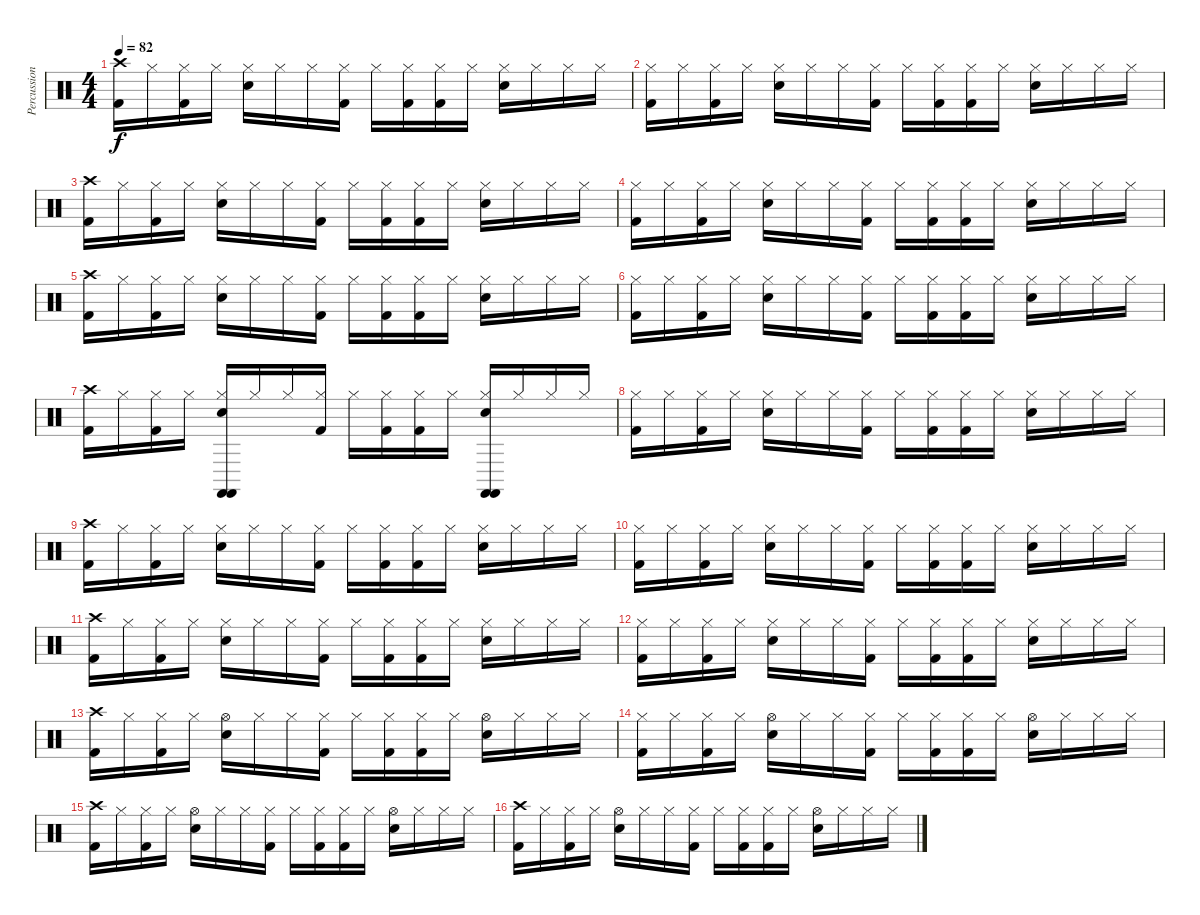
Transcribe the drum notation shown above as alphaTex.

\track ("Percussion" "Percussion") {instrument percussion}
\staff {score}
\articulation defaults
\ts (4 4)
\tempo 82
\clef neutral
\ks c
("Crash high (hit)" "Kick (hit) 2").16{dy f} "Hi-Hat (closed)".16 ("Hi-Hat (closed)" "Kick (hit) 2").16 "Hi-Hat (closed)".16 ("Hi-Hat (closed)" "Snare (hit) 2").16 "Hi-Hat (closed)".16 "Hi-Hat (closed)".16 ("Hi-Hat (closed)" "Kick (hit) 2").16 "Hi-Hat (closed)".16 ("Hi-Hat (closed)" "Kick (hit) 2").16 ("Hi-Hat (closed)" "Kick (hit) 2").16 "Hi-Hat (closed)".16 ("Hi-Hat (closed)" "Snare (hit) 2").16 "Hi-Hat (closed)".16 "Hi-Hat (closed)".16 "Hi-Hat (closed)".16 |
("Hi-Hat (closed)" "Kick (hit) 2").16 "Hi-Hat (closed)".16 ("Hi-Hat (closed)" "Kick (hit) 2").16 "Hi-Hat (closed)".16 ("Hi-Hat (closed)" "Snare (hit) 2").16 "Hi-Hat (closed)".16 "Hi-Hat (closed)".16 ("Hi-Hat (closed)" "Kick (hit) 2").16 "Hi-Hat (closed)".16 ("Hi-Hat (closed)" "Kick (hit) 2").16 ("Hi-Hat (closed)" "Kick (hit) 2").16 "Hi-Hat (closed)".16 ("Hi-Hat (closed)" "Snare (hit) 2").16 "Hi-Hat (closed)".16 "Hi-Hat (closed)".16 "Hi-Hat (closed)".16 |
("Crash high (hit)" "Kick (hit) 2").16 "Hi-Hat (closed)".16 ("Hi-Hat (closed)" "Kick (hit) 2").16 "Hi-Hat (closed)".16 ("Hi-Hat (closed)" "Snare (hit) 2").16 "Hi-Hat (closed)".16 "Hi-Hat (closed)".16 ("Hi-Hat (closed)" "Kick (hit) 2").16 "Hi-Hat (closed)".16 ("Hi-Hat (closed)" "Kick (hit) 2").16 ("Hi-Hat (closed)" "Kick (hit) 2").16 "Hi-Hat (closed)".16 ("Hi-Hat (closed)" "Snare (hit) 2").16 "Hi-Hat (closed)".16 "Hi-Hat (closed)".16 "Hi-Hat (closed)".16 |
("Hi-Hat (closed)" "Kick (hit) 2").16 "Hi-Hat (closed)".16 ("Hi-Hat (closed)" "Kick (hit) 2").16 "Hi-Hat (closed)".16 ("Hi-Hat (closed)" "Snare (hit) 2").16 "Hi-Hat (closed)".16 "Hi-Hat (closed)".16 ("Hi-Hat (closed)" "Kick (hit) 2").16 "Hi-Hat (closed)".16 ("Hi-Hat (closed)" "Kick (hit) 2").16 ("Hi-Hat (closed)" "Kick (hit) 2").16 "Hi-Hat (closed)".16 ("Hi-Hat (closed)" "Snare (hit) 2").16 "Hi-Hat (closed)".16 "Hi-Hat (closed)".16 "Hi-Hat (closed)".16 |
("Crash high (hit)" "Kick (hit) 2").16 "Hi-Hat (closed)".16 ("Hi-Hat (closed)" "Kick (hit) 2").16 "Hi-Hat (closed)".16 ("Hi-Hat (closed)" "Snare (hit) 2").16 "Hi-Hat (closed)".16 "Hi-Hat (closed)".16 ("Hi-Hat (closed)" "Kick (hit) 2").16 "Hi-Hat (closed)".16 ("Hi-Hat (closed)" "Kick (hit) 2").16 ("Hi-Hat (closed)" "Kick (hit) 2").16 "Hi-Hat (closed)".16 ("Hi-Hat (closed)" "Snare (hit) 2").16 "Hi-Hat (closed)".16 "Hi-Hat (closed)".16 "Hi-Hat (closed)".16 |
("Hi-Hat (closed)" "Kick (hit) 2").16 "Hi-Hat (closed)".16 ("Hi-Hat (closed)" "Kick (hit) 2").16 "Hi-Hat (closed)".16 ("Hi-Hat (closed)" "Snare (hit) 2").16 "Hi-Hat (closed)".16 "Hi-Hat (closed)".16 ("Hi-Hat (closed)" "Kick (hit) 2").16 "Hi-Hat (closed)".16 ("Hi-Hat (closed)" "Kick (hit) 2").16 ("Hi-Hat (closed)" "Kick (hit) 2").16 "Hi-Hat (closed)".16 ("Hi-Hat (closed)" "Snare (hit) 2").16 "Hi-Hat (closed)".16 "Hi-Hat (closed)".16 "Hi-Hat (closed)".16 |
("Crash high (hit)" "Kick (hit) 2").16 "Hi-Hat (closed)".16 ("Hi-Hat (closed)" "Kick (hit) 2").16 "Hi-Hat (closed)".16 ("Hi-Hat (closed)" "Snare (hit) 2" "Castanets (hit)" "Castanets (hit)").16 "Hi-Hat (closed)".16 "Hi-Hat (closed)".16 ("Hi-Hat (closed)" "Kick (hit) 2").16 "Hi-Hat (closed)".16 ("Hi-Hat (closed)" "Kick (hit) 2").16 ("Hi-Hat (closed)" "Kick (hit) 2").16 "Hi-Hat (closed)".16 ("Hi-Hat (closed)" "Snare (hit) 2" "Castanets (hit)" "Castanets (hit)").16 "Hi-Hat (closed)".16 "Hi-Hat (closed)".16 "Hi-Hat (closed)".16 |
("Hi-Hat (closed)" "Kick (hit) 2").16 "Hi-Hat (closed)".16 ("Hi-Hat (closed)" "Kick (hit) 2").16 "Hi-Hat (closed)".16 ("Hi-Hat (closed)" "Snare (hit) 2").16 "Hi-Hat (closed)".16 "Hi-Hat (closed)".16 ("Hi-Hat (closed)" "Kick (hit) 2").16 "Hi-Hat (closed)".16 ("Hi-Hat (closed)" "Kick (hit) 2").16 ("Hi-Hat (closed)" "Kick (hit) 2").16 "Hi-Hat (closed)".16 ("Hi-Hat (closed)" "Snare (hit) 2").16 "Hi-Hat (closed)".16 "Hi-Hat (closed)".16 "Hi-Hat (closed)".16 |
("Crash high (hit)" "Kick (hit) 2").16 "Hi-Hat (closed)".16 ("Hi-Hat (closed)" "Kick (hit) 2").16 "Hi-Hat (closed)".16 ("Hi-Hat (closed)" "Snare (hit) 2").16 "Hi-Hat (closed)".16 "Hi-Hat (closed)".16 ("Hi-Hat (closed)" "Kick (hit) 2").16 "Hi-Hat (closed)".16 ("Hi-Hat (closed)" "Kick (hit) 2").16 ("Hi-Hat (closed)" "Kick (hit) 2").16 "Hi-Hat (closed)".16 ("Hi-Hat (closed)" "Snare (hit) 2").16 "Hi-Hat (closed)".16 "Hi-Hat (closed)".16 "Hi-Hat (closed)".16 |
("Hi-Hat (closed)" "Kick (hit) 2").16 "Hi-Hat (closed)".16 ("Hi-Hat (closed)" "Kick (hit) 2").16 "Hi-Hat (closed)".16 ("Hi-Hat (closed)" "Snare (hit) 2").16 "Hi-Hat (closed)".16 "Hi-Hat (closed)".16 ("Hi-Hat (closed)" "Kick (hit) 2").16 "Hi-Hat (closed)".16 ("Hi-Hat (closed)" "Kick (hit) 2").16 ("Hi-Hat (closed)" "Kick (hit) 2").16 "Hi-Hat (closed)".16 ("Hi-Hat (closed)" "Snare (hit) 2").16 "Hi-Hat (closed)".16 "Hi-Hat (closed)".16 "Hi-Hat (closed)".16 |
("Crash high (hit)" "Kick (hit) 2").16 "Hi-Hat (closed)".16 ("Hi-Hat (closed)" "Kick (hit) 2").16 "Hi-Hat (closed)".16 ("Hi-Hat (closed)" "Snare (hit) 2").16 "Hi-Hat (closed)".16 "Hi-Hat (closed)".16 ("Hi-Hat (closed)" "Kick (hit) 2").16 "Hi-Hat (closed)".16 ("Hi-Hat (closed)" "Kick (hit) 2").16 ("Hi-Hat (closed)" "Kick (hit) 2").16 "Hi-Hat (closed)".16 ("Hi-Hat (closed)" "Snare (hit) 2").16 "Hi-Hat (closed)".16 "Hi-Hat (closed)".16 "Hi-Hat (closed)".16 |
("Hi-Hat (closed)" "Kick (hit) 2").16 "Hi-Hat (closed)".16 ("Hi-Hat (closed)" "Kick (hit) 2").16 "Hi-Hat (closed)".16 ("Hi-Hat (closed)" "Snare (hit) 2").16 "Hi-Hat (closed)".16 "Hi-Hat (closed)".16 ("Hi-Hat (closed)" "Kick (hit) 2").16 "Hi-Hat (closed)".16 ("Hi-Hat (closed)" "Kick (hit) 2").16 ("Hi-Hat (closed)" "Kick (hit) 2").16 "Hi-Hat (closed)".16 ("Hi-Hat (closed)" "Snare (hit) 2").16 "Hi-Hat (closed)".16 "Hi-Hat (closed)".16 "Hi-Hat (closed)".16 |
("Crash high (hit)" "Kick (hit) 2").16 "Hi-Hat (closed)".16 ("Hi-Hat (closed)" "Kick (hit) 2").16 "Hi-Hat (closed)".16 ("Hi-Hat (open)" "Snare (hit) 2").16 "Hi-Hat (closed)".16 "Hi-Hat (closed)".16 ("Hi-Hat (closed)" "Kick (hit) 2").16 "Hi-Hat (closed)".16 ("Hi-Hat (closed)" "Kick (hit) 2").16 ("Hi-Hat (closed)" "Kick (hit) 2").16 "Hi-Hat (closed)".16 ("Hi-Hat (open)" "Snare (hit) 2").16 "Hi-Hat (closed)".16 "Hi-Hat (closed)".16 "Hi-Hat (closed)".16 |
("Hi-Hat (closed)" "Kick (hit) 2").16 "Hi-Hat (closed)".16 ("Hi-Hat (closed)" "Kick (hit) 2").16 "Hi-Hat (closed)".16 ("Hi-Hat (open)" "Snare (hit) 2").16 "Hi-Hat (closed)".16 "Hi-Hat (closed)".16 ("Hi-Hat (closed)" "Kick (hit) 2").16 "Hi-Hat (closed)".16 ("Hi-Hat (closed)" "Kick (hit) 2").16 ("Hi-Hat (closed)" "Kick (hit) 2").16 "Hi-Hat (closed)".16 ("Hi-Hat (open)" "Snare (hit) 2").16 "Hi-Hat (closed)".16 "Hi-Hat (closed)".16 "Hi-Hat (closed)".16 |
("Crash high (hit)" "Kick (hit) 2").16 "Hi-Hat (closed)".16 ("Hi-Hat (closed)" "Kick (hit) 2").16 "Hi-Hat (closed)".16 ("Hi-Hat (open)" "Snare (hit) 2").16 "Hi-Hat (closed)".16 "Hi-Hat (closed)".16 ("Hi-Hat (closed)" "Kick (hit) 2").16 "Hi-Hat (closed)".16 ("Hi-Hat (closed)" "Kick (hit) 2").16 ("Hi-Hat (closed)" "Kick (hit) 2").16 "Hi-Hat (closed)".16 ("Hi-Hat (open)" "Snare (hit) 2").16 "Hi-Hat (closed)".16 "Hi-Hat (closed)".16 "Hi-Hat (closed)".16 |
("Crash high (hit)" "Kick (hit) 2").16 "Hi-Hat (closed)".16 ("Hi-Hat (closed)" "Kick (hit) 2").16 "Hi-Hat (closed)".16 ("Hi-Hat (open)" "Snare (hit) 2").16 "Hi-Hat (closed)".16 "Hi-Hat (closed)".16 ("Hi-Hat (closed)" "Kick (hit) 2").16 "Hi-Hat (closed)".16 ("Hi-Hat (closed)" "Kick (hit) 2").16 ("Hi-Hat (closed)" "Kick (hit) 2").16 "Hi-Hat (closed)".16 ("Hi-Hat (open)" "Snare (hit) 2").16 "Hi-Hat (closed)".16 "Hi-Hat (closed)".16 "Hi-Hat (closed)".16
